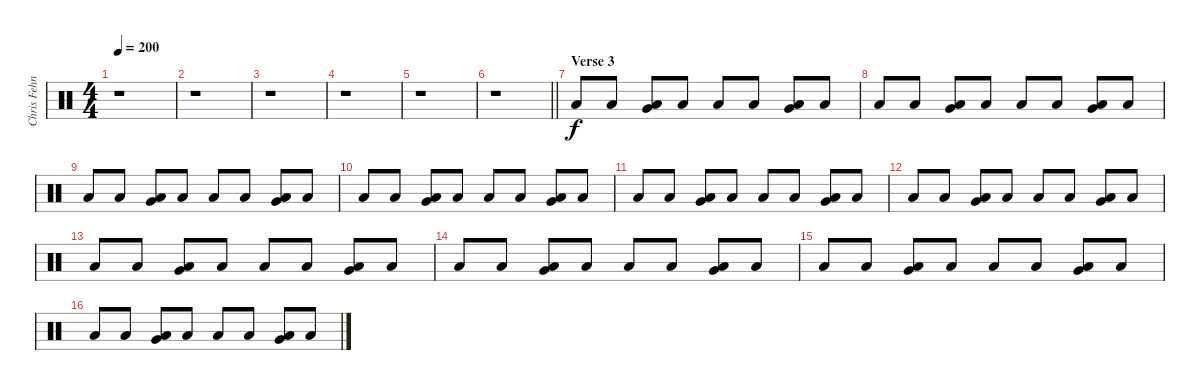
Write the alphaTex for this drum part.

\track ("Chris Fehn" "Chris Fehn") {instrument percussion}
\staff {score}
\articulation defaults
\ts (4 4)
\tempo 200
\clef neutral
\ks c
r.1{dy f} |
r.1 |
r.1 |
r.1 |
r.1 |
\barLineRight lightlight
r.1 |
\section ("" "Verse 3")
"Low Floor Tom (hit)".8 "Low Floor Tom (hit)".8 ("Very Low Tom (hit)" "Low Floor Tom (hit)").8 "Low Floor Tom (hit)".8 "Low Floor Tom (hit)".8 "Low Floor Tom (hit)".8 ("Very Low Tom (hit)" "Low Floor Tom (hit)").8 "Low Floor Tom (hit)".8 |
"Low Floor Tom (hit)".8 "Low Floor Tom (hit)".8 ("Very Low Tom (hit)" "Low Floor Tom (hit)").8 "Low Floor Tom (hit)".8 "Low Floor Tom (hit)".8 "Low Floor Tom (hit)".8 ("Very Low Tom (hit)" "Low Floor Tom (hit)").8 "Low Floor Tom (hit)".8 |
"Low Floor Tom (hit)".8 "Low Floor Tom (hit)".8 ("Very Low Tom (hit)" "Low Floor Tom (hit)").8 "Low Floor Tom (hit)".8 "Low Floor Tom (hit)".8 "Low Floor Tom (hit)".8 ("Very Low Tom (hit)" "Low Floor Tom (hit)").8 "Low Floor Tom (hit)".8 |
"Low Floor Tom (hit)".8 "Low Floor Tom (hit)".8 ("Very Low Tom (hit)" "Low Floor Tom (hit)").8 "Low Floor Tom (hit)".8 "Low Floor Tom (hit)".8 "Low Floor Tom (hit)".8 ("Very Low Tom (hit)" "Low Floor Tom (hit)").8 "Low Floor Tom (hit)".8 |
"Low Floor Tom (hit)".8 "Low Floor Tom (hit)".8 ("Very Low Tom (hit)" "Low Floor Tom (hit)").8 "Low Floor Tom (hit)".8 "Low Floor Tom (hit)".8 "Low Floor Tom (hit)".8 ("Very Low Tom (hit)" "Low Floor Tom (hit)").8 "Low Floor Tom (hit)".8 |
"Low Floor Tom (hit)".8 "Low Floor Tom (hit)".8 ("Very Low Tom (hit)" "Low Floor Tom (hit)").8 "Low Floor Tom (hit)".8 "Low Floor Tom (hit)".8 "Low Floor Tom (hit)".8 ("Very Low Tom (hit)" "Low Floor Tom (hit)").8 "Low Floor Tom (hit)".8 |
"Low Floor Tom (hit)".8 "Low Floor Tom (hit)".8 ("Very Low Tom (hit)" "Low Floor Tom (hit)").8 "Low Floor Tom (hit)".8 "Low Floor Tom (hit)".8 "Low Floor Tom (hit)".8 ("Very Low Tom (hit)" "Low Floor Tom (hit)").8 "Low Floor Tom (hit)".8 |
"Low Floor Tom (hit)".8 "Low Floor Tom (hit)".8 ("Very Low Tom (hit)" "Low Floor Tom (hit)").8 "Low Floor Tom (hit)".8 "Low Floor Tom (hit)".8 "Low Floor Tom (hit)".8 ("Very Low Tom (hit)" "Low Floor Tom (hit)").8 "Low Floor Tom (hit)".8 |
"Low Floor Tom (hit)".8 "Low Floor Tom (hit)".8 ("Very Low Tom (hit)" "Low Floor Tom (hit)").8 "Low Floor Tom (hit)".8 "Low Floor Tom (hit)".8 "Low Floor Tom (hit)".8 ("Very Low Tom (hit)" "Low Floor Tom (hit)").8 "Low Floor Tom (hit)".8 |
"Low Floor Tom (hit)".8 "Low Floor Tom (hit)".8 ("Very Low Tom (hit)" "Low Floor Tom (hit)").8 "Low Floor Tom (hit)".8 "Low Floor Tom (hit)".8 "Low Floor Tom (hit)".8 ("Very Low Tom (hit)" "Low Floor Tom (hit)").8 "Low Floor Tom (hit)".8
